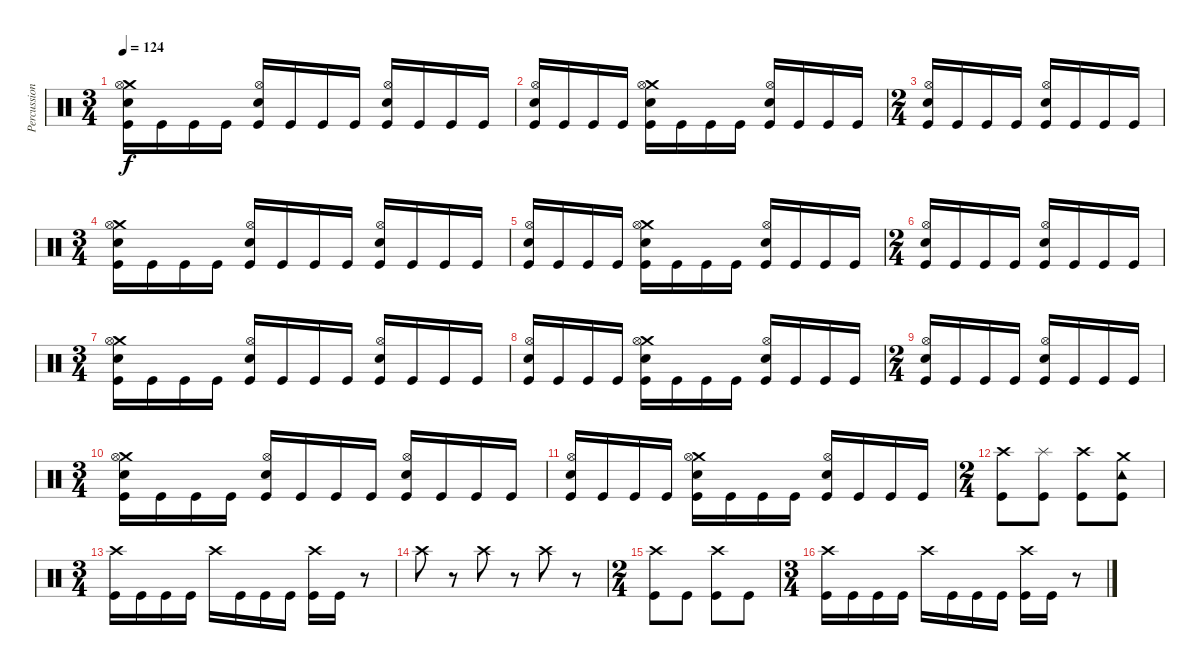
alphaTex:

\track ("Percussion" "Percussion") {instrument percussion}
\staff {score}
\articulation defaults
\ts (3 4)
\tempo 124
\clef neutral
\ks c
("Crash medium (hit)" "Electric Snare (hit)" "Hi-Hat (open)" "Kick (hit)").16{dy f} "Kick (hit)".16 "Kick (hit)".16 "Kick (hit)".16 ("Electric Snare (hit)" "Hi-Hat (open)" "Kick (hit)").16 "Kick (hit)".16 "Kick (hit)".16 "Kick (hit)".16 ("Electric Snare (hit)" "Hi-Hat (open)" "Kick (hit)").16 "Kick (hit)".16 "Kick (hit)".16 "Kick (hit)".16 |
("Hi-Hat (open)" "Electric Snare (hit)" "Kick (hit)").16 "Kick (hit)".16 "Kick (hit)".16 "Kick (hit)".16 ("Crash medium (hit)" "Hi-Hat (open)" "Electric Snare (hit)" "Kick (hit)").16 "Kick (hit)".16 "Kick (hit)".16 "Kick (hit)".16 ("Hi-Hat (open)" "Electric Snare (hit)" "Kick (hit)").16 "Kick (hit)".16 "Kick (hit)".16 "Kick (hit)".16 |
\ts (2 4)
("Hi-Hat (open)" "Electric Snare (hit)" "Kick (hit)").16 "Kick (hit)".16 "Kick (hit)".16 "Kick (hit)".16 ("Hi-Hat (open)" "Electric Snare (hit)" "Kick (hit)").16 "Kick (hit)".16 "Kick (hit)".16 "Kick (hit)".16 |
\ts (3 4)
("Crash medium (hit)" "Hi-Hat (open)" "Electric Snare (hit)" "Kick (hit)").16 "Kick (hit)".16 "Kick (hit)".16 "Kick (hit)".16 ("Hi-Hat (open)" "Electric Snare (hit)" "Kick (hit)").16 "Kick (hit)".16 "Kick (hit)".16 "Kick (hit)".16 ("Hi-Hat (open)" "Electric Snare (hit)" "Kick (hit)").16 "Kick (hit)".16 "Kick (hit)".16 "Kick (hit)".16 |
("Hi-Hat (open)" "Electric Snare (hit)" "Kick (hit)").16 "Kick (hit)".16 "Kick (hit)".16 "Kick (hit)".16 ("Crash medium (hit)" "Hi-Hat (open)" "Electric Snare (hit)" "Kick (hit)").16 "Kick (hit)".16 "Kick (hit)".16 "Kick (hit)".16 ("Hi-Hat (open)" "Electric Snare (hit)" "Kick (hit)").16 "Kick (hit)".16 "Kick (hit)".16 "Kick (hit)".16 |
\ts (2 4)
("Hi-Hat (open)" "Electric Snare (hit)" "Kick (hit)").16 "Kick (hit)".16 "Kick (hit)".16 "Kick (hit)".16 ("Hi-Hat (open)" "Electric Snare (hit)" "Kick (hit)").16 "Kick (hit)".16 "Kick (hit)".16 "Kick (hit)".16 |
\ts (3 4)
("Crash medium (hit)" "Electric Snare (hit)" "Hi-Hat (open)" "Kick (hit)").16 "Kick (hit)".16 "Kick (hit)".16 "Kick (hit)".16 ("Electric Snare (hit)" "Hi-Hat (open)" "Kick (hit)").16 "Kick (hit)".16 "Kick (hit)".16 "Kick (hit)".16 ("Electric Snare (hit)" "Hi-Hat (open)" "Kick (hit)").16 "Kick (hit)".16 "Kick (hit)".16 "Kick (hit)".16 |
("Hi-Hat (open)" "Electric Snare (hit)" "Kick (hit)").16 "Kick (hit)".16 "Kick (hit)".16 "Kick (hit)".16 ("Crash medium (hit)" "Hi-Hat (open)" "Electric Snare (hit)" "Kick (hit)").16 "Kick (hit)".16 "Kick (hit)".16 "Kick (hit)".16 ("Hi-Hat (open)" "Electric Snare (hit)" "Kick (hit)").16 "Kick (hit)".16 "Kick (hit)".16 "Kick (hit)".16 |
\ts (2 4)
("Hi-Hat (open)" "Electric Snare (hit)" "Kick (hit)").16 "Kick (hit)".16 "Kick (hit)".16 "Kick (hit)".16 ("Hi-Hat (open)" "Electric Snare (hit)" "Kick (hit)").16 "Kick (hit)".16 "Kick (hit)".16 "Kick (hit)".16 |
\ts (3 4)
("Crash medium (hit)" "Hi-Hat (open)" "Electric Snare (hit)" "Kick (hit)").16 "Kick (hit)".16 "Kick (hit)".16 "Kick (hit)".16 ("Hi-Hat (open)" "Electric Snare (hit)" "Kick (hit)").16 "Kick (hit)".16 "Kick (hit)".16 "Kick (hit)".16 ("Hi-Hat (open)" "Electric Snare (hit)" "Kick (hit)").16 "Kick (hit)".16 "Kick (hit)".16 "Kick (hit)".16 |
("Hi-Hat (open)" "Electric Snare (hit)" "Kick (hit)").16 "Kick (hit)".16 "Kick (hit)".16 "Kick (hit)".16 ("Crash medium (hit)" "Hi-Hat (open)" "Electric Snare (hit)" "Kick (hit)").16 "Kick (hit)".16 "Kick (hit)".16 "Kick (hit)".16 ("Hi-Hat (open)" "Electric Snare (hit)" "Kick (hit)").16 "Kick (hit)".16 "Kick (hit)".16 "Kick (hit)".16 |
\ts (2 4)
("Crash high (hit)" "Kick (hit)").8 ("Splash (hit)" "Kick (hit)").8 ("Crash high (hit)" "Kick (hit)").8 ("Tambourine (hit)" "Crash medium (hit)" "Kick (hit)").8 |
\ts (3 4)
("Crash high (hit)" "Kick (hit)").16 "Kick (hit)".16 "Kick (hit)".16 "Kick (hit)".16 "Crash high (hit)".16 "Kick (hit)".16 "Kick (hit)".16 "Kick (hit)".16 ("Crash high (hit)" "Kick (hit)").16 "Kick (hit)".16 r.8 |
"Crash high (hit)".8 r.8 "Crash high (hit)".8 r.8 "Crash high (hit)".8 r.8 |
\ts (2 4)
("Crash high (hit)" "Kick (hit)").8 "Kick (hit)".8 ("Crash high (hit)" "Kick (hit)").8 "Kick (hit)".8 |
\ts (3 4)
("Crash high (hit)" "Kick (hit)").16 "Kick (hit)".16 "Kick (hit)".16 "Kick (hit)".16 "Crash high (hit)".16 "Kick (hit)".16 "Kick (hit)".16 "Kick (hit)".16 ("Crash high (hit)" "Kick (hit)").16 "Kick (hit)".16 r.8
